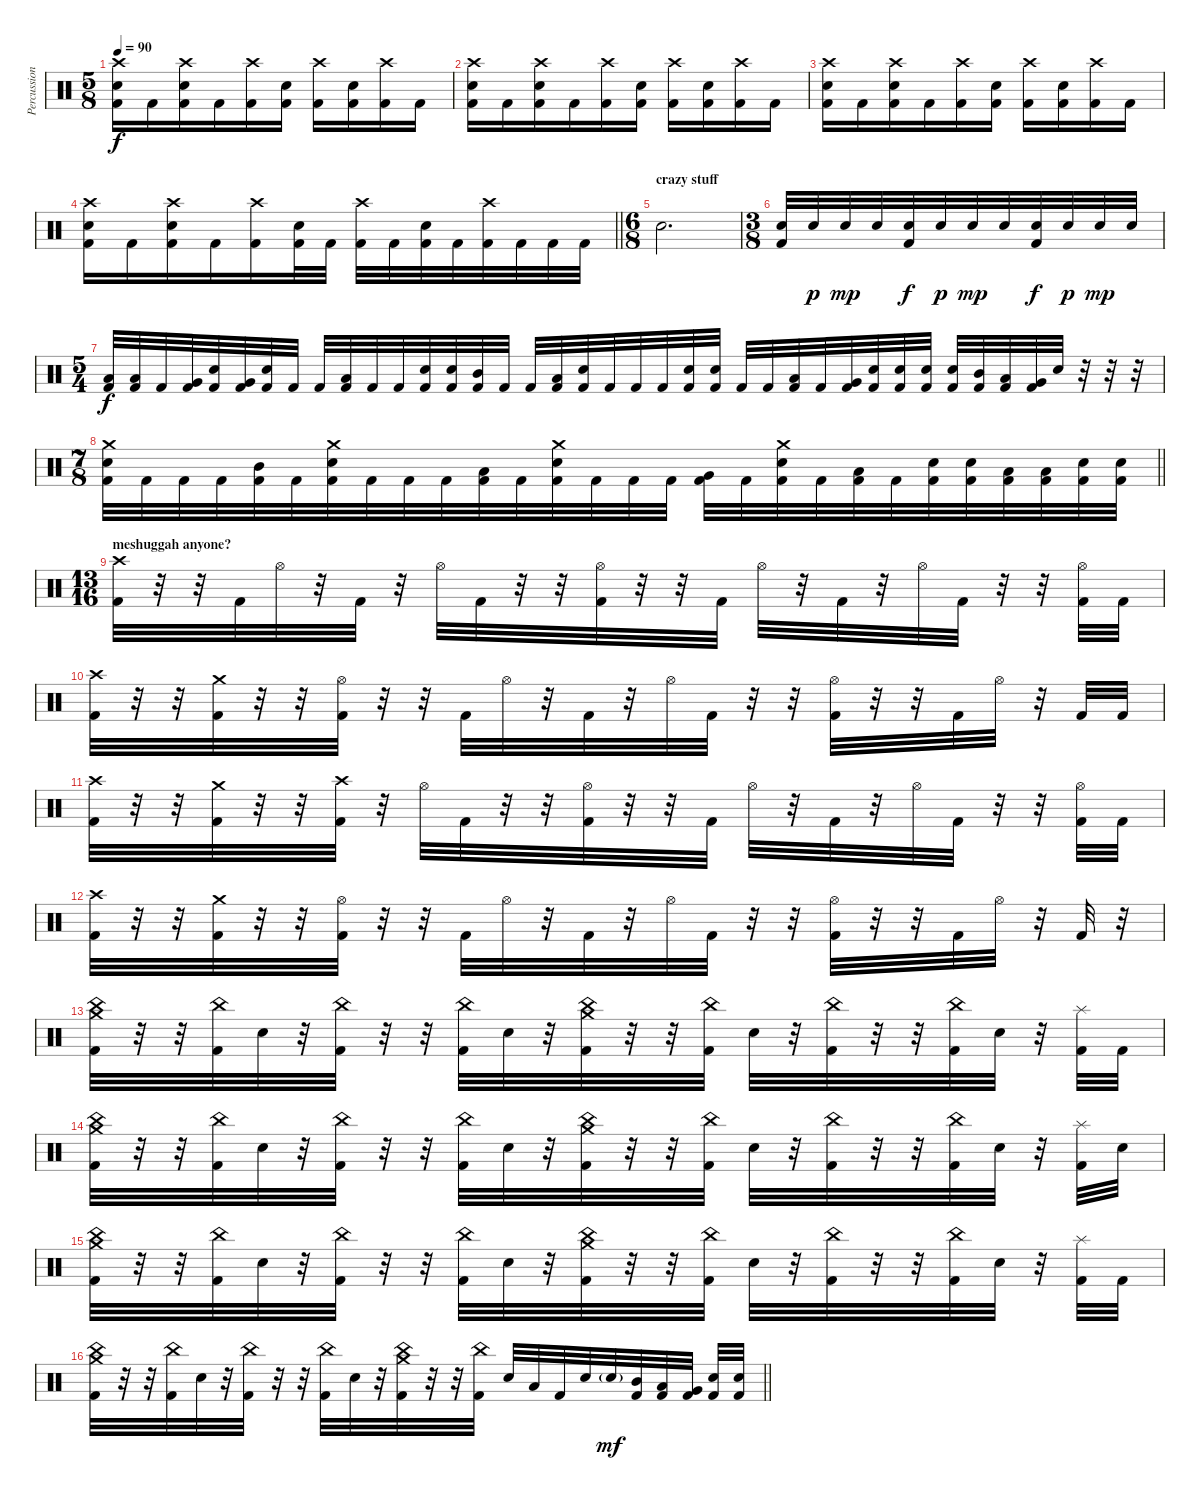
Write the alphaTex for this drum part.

\track ("Percussion" "Percussion") {instrument percussion}
\staff {score}
\articulation defaults
\ts (5 8)
\tempo 90
\clef neutral
\ks c
("Crash high (hit)" "Electric Snare (hit)" "Kick (hit) 2").16{dy f} "Kick (hit) 2".16 ("Crash high (hit)" "Electric Snare (hit)" "Kick (hit) 2").16 "Kick (hit) 2".16 ("Crash high (hit)" "Kick (hit) 2").16 ("Electric Snare (hit)" "Kick (hit) 2").16 ("Crash high (hit)" "Kick (hit) 2").16 ("Electric Snare (hit)" "Kick (hit) 2").16 ("Crash high (hit)" "Kick (hit) 2").16 "Kick (hit) 2".16 |
("Crash high (hit)" "Electric Snare (hit)" "Kick (hit) 2").16 "Kick (hit) 2".16 ("Crash high (hit)" "Electric Snare (hit)" "Kick (hit) 2").16 "Kick (hit) 2".16 ("Crash high (hit)" "Kick (hit) 2").16 ("Electric Snare (hit)" "Kick (hit) 2").16 ("Crash high (hit)" "Kick (hit) 2").16 ("Electric Snare (hit)" "Kick (hit) 2").16 ("Crash high (hit)" "Kick (hit) 2").16 "Kick (hit) 2".16 |
("Crash high (hit)" "Electric Snare (hit)" "Kick (hit) 2").16 "Kick (hit) 2".16 ("Crash high (hit)" "Electric Snare (hit)" "Kick (hit) 2").16 "Kick (hit) 2".16 ("Crash high (hit)" "Kick (hit) 2").16 ("Electric Snare (hit)" "Kick (hit) 2").16 ("Crash high (hit)" "Kick (hit) 2").16 ("Electric Snare (hit)" "Kick (hit) 2").16 ("Crash high (hit)" "Kick (hit) 2").16 "Kick (hit) 2".16 |
\barLineRight lightlight
("Crash high (hit)" "Electric Snare (hit)" "Kick (hit) 2").16 "Kick (hit) 2".16 ("Crash high (hit)" "Electric Snare (hit)" "Kick (hit) 2").16 "Kick (hit) 2".16 ("Crash high (hit)" "Kick (hit) 2").16 ("Electric Snare (hit)" "Kick (hit) 2").32 "Kick (hit) 2".32 ("Crash high (hit)" "Kick (hit) 2").32 "Kick (hit) 2".32 ("Electric Snare (hit)" "Kick (hit) 2").32 "Kick (hit) 2".32 ("Crash high (hit)" "Kick (hit) 2").32 "Kick (hit) 2".32 "Kick (hit) 2".32 "Kick (hit) 2".32 |
\ts (6 8)
\section ("" "crazy stuff")
"Electric Snare (hit)".2{d} |
\ts (3 8)
("Electric Snare (hit)" "Kick (hit) 2").32 "Electric Snare (hit)".32{dy p} "Electric Snare (hit)".32{dy mp} "Electric Snare (hit)".32 ("Electric Snare (hit)" "Kick (hit) 2").32{dy f} "Electric Snare (hit)".32{dy p} "Electric Snare (hit)".32{dy mp} "Electric Snare (hit)".32 ("Electric Snare (hit)" "Kick (hit) 2").32{dy f} "Electric Snare (hit)".32{dy p} "Electric Snare (hit)".32{dy mp} "Electric Snare (hit)".32 |
\ts (5 4)
("Low Tom (hit)" "Kick (hit) 2").32{dy f} ("Low Tom (hit)" "Kick (hit) 2").32 "Kick (hit) 2".32 ("Very Low Tom (hit)" "Kick (hit) 2").32 ("Electric Snare (hit)" "Kick (hit) 2").32 ("Very Low Tom (hit)" "Kick (hit) 2").32 ("Electric Snare (hit)" "Kick (hit) 2").32 "Kick (hit) 2".32 "Kick (hit) 2".32 ("Low Tom (hit)" "Kick (hit) 2").32 "Kick (hit) 2".32 "Kick (hit) 2".32 ("Electric Snare (hit)" "Kick (hit) 2").32 ("Electric Snare (hit)" "Kick (hit) 2").32 ("Mid Tom (hit)" "Kick (hit) 2").32 "Kick (hit) 2".32 "Kick (hit) 2".32 ("Low Tom (hit)" "Kick (hit) 2").32 ("Electric Snare (hit)" "Kick (hit) 2").32 "Kick (hit) 2".32 "Kick (hit) 2".32 "Kick (hit) 2".32 ("Electric Snare (hit)" "Kick (hit) 2").32 ("Electric Snare (hit)" "Kick (hit) 2").32 "Kick (hit) 2".32 "Kick (hit) 2".32 ("Low Tom (hit)" "Kick (hit) 2").32 "Kick (hit) 2".32 ("Very Low Tom (hit)" "Kick (hit) 2").32 ("Electric Snare (hit)" "Kick (hit) 2").32 ("Electric Snare (hit)" "Kick (hit) 2").32 ("Electric Snare (hit)" "Kick (hit) 2").32 ("Electric Snare (hit)" "Kick (hit) 2").32 ("Mid Tom (hit)" "Kick (hit) 2").32 ("Low Tom (hit)" "Kick (hit) 2").32 ("Very Low Tom (hit)" "Kick (hit) 2").32 "Electric Snare (hit)".32 r.32 r.32 r.32 |
\ts (7 8)
\barLineRight lightlight
("Crash medium (hit)" "Electric Snare (hit)" "Kick (hit) 2").32 "Kick (hit) 2".32 "Kick (hit) 2".32 "Kick (hit) 2".32 ("Mid Tom (hit)" "Kick (hit) 2").32 "Kick (hit) 2".32 ("Crash medium (hit)" "Electric Snare (hit)" "Kick (hit) 2").32 "Kick (hit) 2".32 "Kick (hit) 2".32 "Kick (hit) 2".32 ("Low Tom (hit)" "Kick (hit) 2").32 "Kick (hit) 2".32 ("Crash medium (hit)" "Electric Snare (hit)" "Kick (hit) 2").32 "Kick (hit) 2".32 "Kick (hit) 2".32 "Kick (hit) 2".32 ("Very Low Tom (hit)" "Kick (hit) 2").32 "Kick (hit) 2".32 ("Crash medium (hit)" "Electric Snare (hit)" "Kick (hit) 2").32 "Kick (hit) 2".32 ("Low Tom (hit)" "Kick (hit) 2").32 "Kick (hit) 2".32 ("Electric Snare (hit)" "Kick (hit) 2").32 ("Electric Snare (hit)" "Kick (hit) 2").32 ("Low Tom (hit)" "Kick (hit) 2").32 ("Low Tom (hit)" "Kick (hit) 2").32 ("Electric Snare (hit)" "Kick (hit) 2").32 ("Electric Snare (hit)" "Kick (hit) 2").32 |
\ts (13 16)
\section ("" "meshuggah anyone?")
("Crash high (hit)" "Kick (hit) 2").32 r.32 r.32 "Kick (hit) 2".32 "Hi-Hat (open)".32 r.32 "Kick (hit) 2".32 r.32 "Hi-Hat (open)".32 "Kick (hit) 2".32 r.32 r.32 ("Hi-Hat (open)" "Kick (hit) 2").32 r.32 r.32 "Kick (hit) 2".32 "Hi-Hat (open)".32 r.32 "Kick (hit) 2".32 r.32 "Hi-Hat (open)".32 "Kick (hit) 2".32 r.32 r.32 ("Hi-Hat (open)" "Kick (hit) 2").32 "Kick (hit) 2".32 |
("Crash high (hit)" "Kick (hit) 2").32 r.32 r.32 ("Crash medium (hit)" "Kick (hit) 2").32 r.32 r.32 ("Hi-Hat (open)" "Kick (hit) 2").32 r.32 r.32 "Kick (hit) 2".32 "Hi-Hat (open)".32 r.32 "Kick (hit) 2".32 r.32 "Hi-Hat (open)".32 "Kick (hit) 2".32 r.32 r.32 ("Hi-Hat (open)" "Kick (hit) 2").32 r.32 r.32 "Kick (hit) 2".32 "Hi-Hat (open)".32 r.32 "Kick (hit) 2".32 "Kick (hit) 2".32 |
("Crash high (hit)" "Kick (hit) 2").32 r.32 r.32 ("Crash medium (hit)" "Kick (hit) 2").32 r.32 r.32 ("Crash high (hit)" "Kick (hit) 2").32 r.32 "Hi-Hat (open)".32 "Kick (hit) 2".32 r.32 r.32 ("Hi-Hat (open)" "Kick (hit) 2").32 r.32 r.32 "Kick (hit) 2".32 "Hi-Hat (open)".32 r.32 "Kick (hit) 2".32 r.32 "Hi-Hat (open)".32 "Kick (hit) 2".32 r.32 r.32 ("Hi-Hat (open)" "Kick (hit) 2").32 "Kick (hit) 2".32 |
("Crash high (hit)" "Kick (hit) 2").32 r.32 r.32 ("Crash medium (hit)" "Kick (hit) 2").32 r.32 r.32 ("Hi-Hat (open)" "Kick (hit) 2").32 r.32 r.32 "Kick (hit) 2".32 "Hi-Hat (open)".32 r.32 "Kick (hit) 2".32 r.32 "Hi-Hat (open)".32 "Kick (hit) 2".32 r.32 r.32 ("Hi-Hat (open)" "Kick (hit) 2").32 r.32 r.32 "Kick (hit) 2".32 "Hi-Hat (open)".32 r.32 "Kick (hit) 2".32 r.32 |
("China (hit)" "Crash medium (hit)" "Kick (hit) 2").32 r.32 r.32 ("China (hit)" "Kick (hit) 2").32 "Electric Snare (hit)".32 r.32 ("China (hit)" "Kick (hit) 2").32 r.32 r.32 ("China (hit)" "Kick (hit) 2").32 "Electric Snare (hit)".32 r.32 ("China (hit)" "Crash medium (hit)" "Kick (hit) 2").32 r.32 r.32 ("China (hit)" "Kick (hit) 2").32 "Electric Snare (hit)".32 r.32 ("China (hit)" "Kick (hit) 2").32 r.32 r.32 ("China (hit)" "Kick (hit) 2").32 "Electric Snare (hit)".32 r.32 ("Splash (hit)" "Kick (hit) 2").32 "Kick (hit) 2".32 |
("China (hit)" "Crash medium (hit)" "Kick (hit) 2").32 r.32 r.32 ("China (hit)" "Kick (hit) 2").32 "Electric Snare (hit)".32 r.32 ("China (hit)" "Kick (hit) 2").32 r.32 r.32 ("China (hit)" "Kick (hit) 2").32 "Electric Snare (hit)".32 r.32 ("China (hit)" "Crash medium (hit)" "Kick (hit) 2").32 r.32 r.32 ("China (hit)" "Kick (hit) 2").32 "Electric Snare (hit)".32 r.32 ("China (hit)" "Kick (hit) 2").32 r.32 r.32 ("China (hit)" "Kick (hit) 2").32 "Electric Snare (hit)".32 r.32 ("Splash (hit)" "Kick (hit) 2").32 "Electric Snare (hit)".32 |
("China (hit)" "Crash medium (hit)" "Kick (hit) 2").32 r.32 r.32 ("China (hit)" "Kick (hit) 2").32 "Electric Snare (hit)".32 r.32 ("China (hit)" "Kick (hit) 2").32 r.32 r.32 ("China (hit)" "Kick (hit) 2").32 "Electric Snare (hit)".32 r.32 ("China (hit)" "Crash medium (hit)" "Kick (hit) 2").32 r.32 r.32 ("China (hit)" "Kick (hit) 2").32 "Electric Snare (hit)".32 r.32 ("China (hit)" "Kick (hit) 2").32 r.32 r.32 ("China (hit)" "Kick (hit) 2").32 "Electric Snare (hit)".32 r.32 ("Splash (hit)" "Kick (hit) 2").32 "Kick (hit) 2".32 |
\barLineRight lightlight
("China (hit)" "Crash medium (hit)" "Kick (hit) 2").32 r.32 r.32 ("China (hit)" "Kick (hit) 2").32 "Electric Snare (hit)".32 r.32 ("China (hit)" "Kick (hit) 2").32 r.32 r.32 ("China (hit)" "Kick (hit) 2").32 "Electric Snare (hit)".32 r.32 ("China (hit)" "Crash medium (hit)" "Kick (hit) 2").32 r.32 r.32 ("China (hit)" "Kick (hit) 2").32 "Electric Snare (hit)".32 "Low Tom (hit)".32 "Kick (hit) 2".32 "Electric Snare (hit)".32 "Electric Snare (hit)"{g}.32{dy mf} ("Mid Tom (hit)" "Kick (hit) 2").32 ("Low Tom (hit)" "Kick (hit) 2").32 ("Very Low Tom (hit)" "Kick (hit) 2").32 ("Electric Snare (hit)" "Kick (hit) 2").32 ("Electric Snare (hit)" "Kick (hit) 2").32
